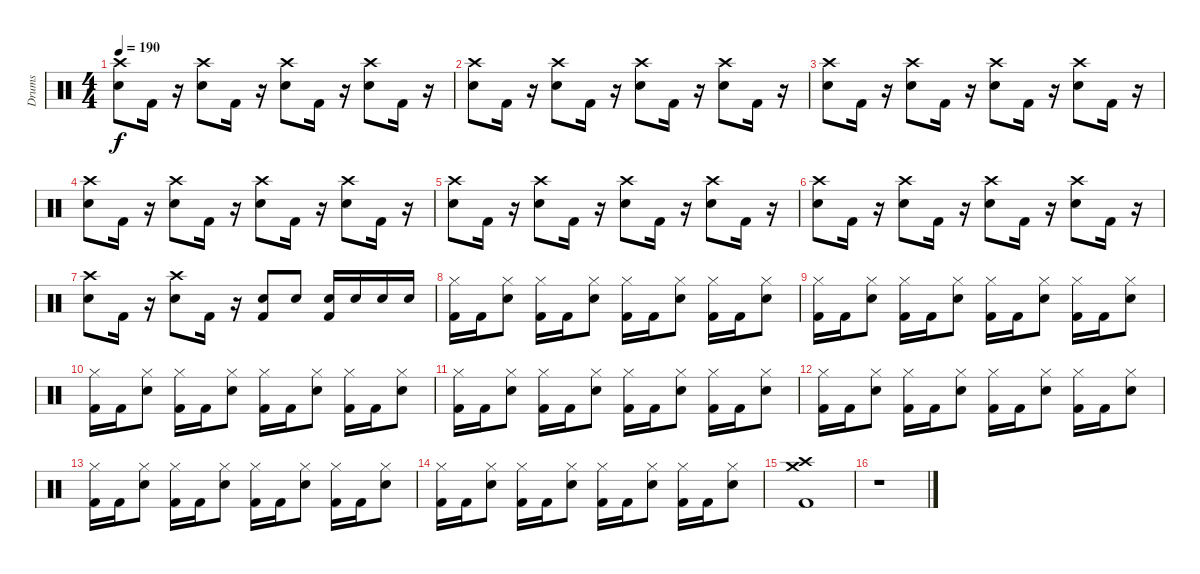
\track ("Drums" "Drums") {instrument percussion}
\staff {score}
\articulation defaults
\ts (4 4)
\tempo 190
\clef neutral
\ks c
("Snare (hit) 2" "Crash high (hit)").8{dy f} "Kick (hit) 2".16 r.16 ("Snare (hit) 2" "Crash high (hit)").8 "Kick (hit) 2".16 r.16 ("Snare (hit) 2" "Crash high (hit)").8 "Kick (hit) 2".16 r.16 ("Snare (hit) 2" "Crash high (hit)").8 "Kick (hit) 2".16 r.16 |
("Snare (hit) 2" "Crash high (hit)").8 "Kick (hit) 2".16 r.16 ("Snare (hit) 2" "Crash high (hit)").8 "Kick (hit) 2".16 r.16 ("Snare (hit) 2" "Crash high (hit)").8 "Kick (hit) 2".16 r.16 ("Snare (hit) 2" "Crash high (hit)").8 "Kick (hit) 2".16 r.16 |
("Snare (hit) 2" "Crash high (hit)").8 "Kick (hit) 2".16 r.16 ("Snare (hit) 2" "Crash high (hit)").8 "Kick (hit) 2".16 r.16 ("Snare (hit) 2" "Crash high (hit)").8 "Kick (hit) 2".16 r.16 ("Snare (hit) 2" "Crash high (hit)").8 "Kick (hit) 2".16 r.16 |
("Snare (hit) 2" "Crash high (hit)").8 "Kick (hit) 2".16 r.16 ("Snare (hit) 2" "Crash high (hit)").8 "Kick (hit) 2".16 r.16 ("Snare (hit) 2" "Crash high (hit)").8 "Kick (hit) 2".16 r.16 ("Snare (hit) 2" "Crash high (hit)").8 "Kick (hit) 2".16 r.16 |
("Snare (hit) 2" "Crash high (hit)").8 "Kick (hit) 2".16 r.16 ("Snare (hit) 2" "Crash high (hit)").8 "Kick (hit) 2".16 r.16 ("Snare (hit) 2" "Crash high (hit)").8 "Kick (hit) 2".16 r.16 ("Snare (hit) 2" "Crash high (hit)").8 "Kick (hit) 2".16 r.16 |
("Snare (hit) 2" "Crash high (hit)").8 "Kick (hit) 2".16 r.16 ("Snare (hit) 2" "Crash high (hit)").8 "Kick (hit) 2".16 r.16 ("Snare (hit) 2" "Crash high (hit)").8 "Kick (hit) 2".16 r.16 ("Snare (hit) 2" "Crash high (hit)").8 "Kick (hit) 2".16 r.16 |
("Snare (hit) 2" "Crash high (hit)").8 "Kick (hit) 2".16 r.16 ("Snare (hit) 2" "Crash high (hit)").8 "Kick (hit) 2".16 r.16 ("Snare (hit) 2" "Kick (hit) 2").8 "Snare (hit) 2".8 ("Snare (hit) 2" "Kick (hit) 2").16 "Snare (hit) 2".16 "Snare (hit) 2".16 "Snare (hit) 2".16 |
("Kick (hit) 2" "Hi-Hat (closed)").16 "Kick (hit) 2".16 ("Snare (hit) 2" "Hi-Hat (closed)").8 ("Kick (hit) 2" "Hi-Hat (closed)").16 "Kick (hit) 2".16 ("Snare (hit) 2" "Hi-Hat (closed)").8 ("Kick (hit) 2" "Hi-Hat (closed)").16 "Kick (hit) 2".16 ("Snare (hit) 2" "Hi-Hat (closed)").8 ("Kick (hit) 2" "Hi-Hat (closed)").16 "Kick (hit) 2".16 ("Snare (hit) 2" "Hi-Hat (closed)").8 |
("Kick (hit) 2" "Hi-Hat (closed)").16 "Kick (hit) 2".16 ("Snare (hit) 2" "Hi-Hat (closed)").8 ("Kick (hit) 2" "Hi-Hat (closed)").16 "Kick (hit) 2".16 ("Snare (hit) 2" "Hi-Hat (closed)").8 ("Kick (hit) 2" "Hi-Hat (closed)").16 "Kick (hit) 2".16 ("Snare (hit) 2" "Hi-Hat (closed)").8 ("Kick (hit) 2" "Hi-Hat (closed)").16 "Kick (hit) 2".16 ("Snare (hit) 2" "Hi-Hat (closed)").8 |
("Kick (hit) 2" "Hi-Hat (closed)").16 "Kick (hit) 2".16 ("Snare (hit) 2" "Hi-Hat (closed)").8 ("Kick (hit) 2" "Hi-Hat (closed)").16 "Kick (hit) 2".16 ("Snare (hit) 2" "Hi-Hat (closed)").8 ("Kick (hit) 2" "Hi-Hat (closed)").16 "Kick (hit) 2".16 ("Snare (hit) 2" "Hi-Hat (closed)").8 ("Kick (hit) 2" "Hi-Hat (closed)").16 "Kick (hit) 2".16 ("Snare (hit) 2" "Hi-Hat (closed)").8 |
("Kick (hit) 2" "Hi-Hat (closed)").16 "Kick (hit) 2".16 ("Snare (hit) 2" "Hi-Hat (closed)").8 ("Kick (hit) 2" "Hi-Hat (closed)").16 "Kick (hit) 2".16 ("Snare (hit) 2" "Hi-Hat (closed)").8 ("Kick (hit) 2" "Hi-Hat (closed)").16 "Kick (hit) 2".16 ("Snare (hit) 2" "Hi-Hat (closed)").8 ("Kick (hit) 2" "Hi-Hat (closed)").16 "Kick (hit) 2".16 ("Snare (hit) 2" "Hi-Hat (closed)").8 |
("Kick (hit) 2" "Hi-Hat (closed)").16 "Kick (hit) 2".16 ("Snare (hit) 2" "Hi-Hat (closed)").8 ("Kick (hit) 2" "Hi-Hat (closed)").16 "Kick (hit) 2".16 ("Snare (hit) 2" "Hi-Hat (closed)").8 ("Kick (hit) 2" "Hi-Hat (closed)").16 "Kick (hit) 2".16 ("Snare (hit) 2" "Hi-Hat (closed)").8 ("Kick (hit) 2" "Hi-Hat (closed)").16 "Kick (hit) 2".16 ("Snare (hit) 2" "Hi-Hat (closed)").8 |
("Kick (hit) 2" "Hi-Hat (closed)").16 "Kick (hit) 2".16 ("Snare (hit) 2" "Hi-Hat (closed)").8 ("Kick (hit) 2" "Hi-Hat (closed)").16 "Kick (hit) 2".16 ("Snare (hit) 2" "Hi-Hat (closed)").8 ("Kick (hit) 2" "Hi-Hat (closed)").16 "Kick (hit) 2".16 ("Snare (hit) 2" "Hi-Hat (closed)").8 ("Kick (hit) 2" "Hi-Hat (closed)").16 "Kick (hit) 2".16 ("Snare (hit) 2" "Hi-Hat (closed)").8 |
("Kick (hit) 2" "Hi-Hat (closed)").16 "Kick (hit) 2".16 ("Snare (hit) 2" "Hi-Hat (closed)").8 ("Kick (hit) 2" "Hi-Hat (closed)").16 "Kick (hit) 2".16 ("Snare (hit) 2" "Hi-Hat (closed)").8 ("Kick (hit) 2" "Hi-Hat (closed)").16 "Kick (hit) 2".16 ("Snare (hit) 2" "Hi-Hat (closed)").8 ("Kick (hit) 2" "Hi-Hat (closed)").16 "Kick (hit) 2".16 ("Snare (hit) 2" "Hi-Hat (closed)").8 |
("Kick (hit) 2" "Crash high (hit)" "Crash medium (hit)").1 |
r.1
